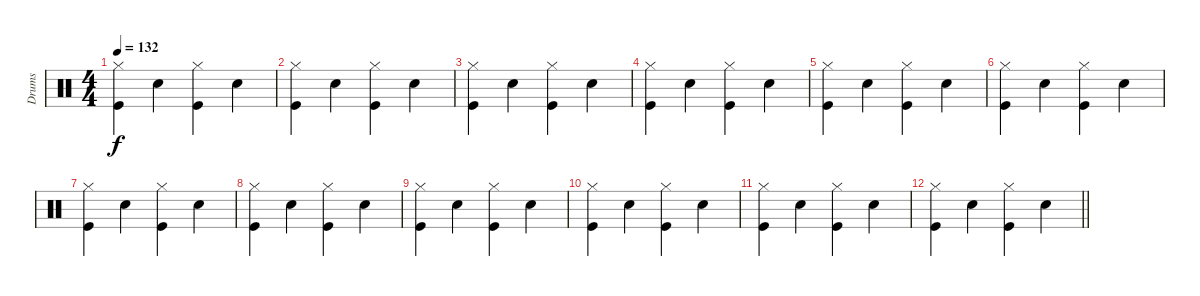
\track ("Drums" "Drums") {instrument percussion}
\staff {score}
\articulation defaults
\ts (4 4)
\tempo 132
\clef neutral
\ks c
("Kick (hit)" "Hi-Hat (closed)").4{dy f} "Snare (hit) 2".4 ("Kick (hit)" "Hi-Hat (closed)").4 "Snare (hit) 2".4 |
("Kick (hit)" "Hi-Hat (closed)").4 "Snare (hit) 2".4 ("Kick (hit)" "Hi-Hat (closed)").4 "Snare (hit) 2".4 |
("Kick (hit)" "Hi-Hat (closed)").4 "Snare (hit) 2".4 ("Kick (hit)" "Hi-Hat (closed)").4 "Snare (hit) 2".4 |
("Kick (hit)" "Hi-Hat (closed)").4 "Snare (hit) 2".4 ("Kick (hit)" "Hi-Hat (closed)").4 "Snare (hit) 2".4 |
("Kick (hit)" "Hi-Hat (closed)").4 "Snare (hit) 2".4 ("Kick (hit)" "Hi-Hat (closed)").4 "Snare (hit) 2".4 |
("Kick (hit)" "Hi-Hat (closed)").4 "Snare (hit) 2".4 ("Kick (hit)" "Hi-Hat (closed)").4 "Snare (hit) 2".4 |
("Kick (hit)" "Hi-Hat (closed)").4 "Snare (hit) 2".4 ("Kick (hit)" "Hi-Hat (closed)").4 "Snare (hit) 2".4 |
("Kick (hit)" "Hi-Hat (closed)").4 "Snare (hit) 2".4 ("Kick (hit)" "Hi-Hat (closed)").4 "Snare (hit) 2".4 |
("Kick (hit)" "Hi-Hat (closed)").4 "Snare (hit) 2".4 ("Kick (hit)" "Hi-Hat (closed)").4 "Snare (hit) 2".4 |
("Kick (hit)" "Hi-Hat (closed)").4 "Snare (hit) 2".4 ("Kick (hit)" "Hi-Hat (closed)").4 "Snare (hit) 2".4 |
("Kick (hit)" "Hi-Hat (closed)").4 "Snare (hit) 2".4 ("Kick (hit)" "Hi-Hat (closed)").4 "Snare (hit) 2".4 |
\barLineRight lightlight
("Kick (hit)" "Hi-Hat (closed)").4 "Snare (hit) 2".4 ("Kick (hit)" "Hi-Hat (closed)").4 "Snare (hit) 2".4
